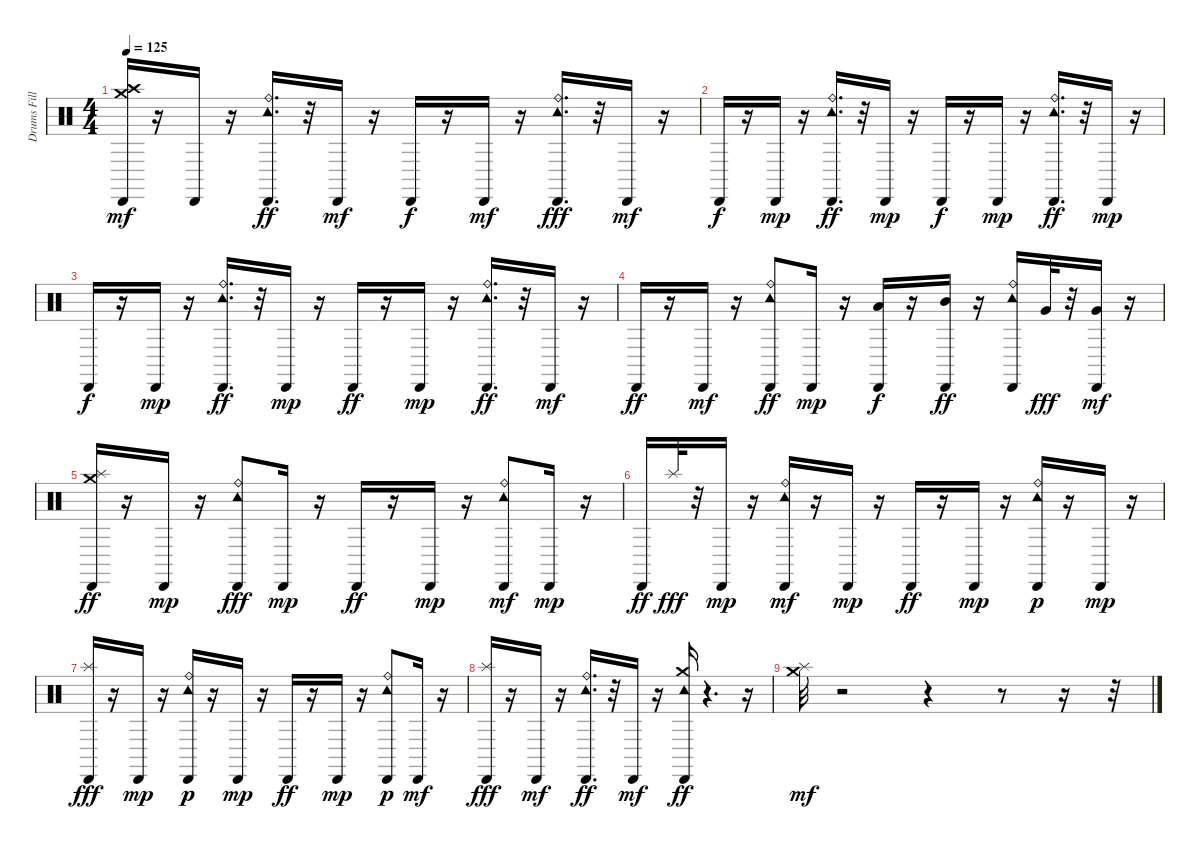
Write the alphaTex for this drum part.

\track ("Drums Fill" "Drums Fill") {instrument percussion}
\staff {score}
\articulation defaults
\ts (4 4)
\tempo 125
\clef neutral
\ks c
("Cabasa (hit)" "Crash high (hit)" "Crash medium (hit)").16{dy mf} r.16 "Cabasa (hit)".16 r.16 ("Tambourine (hit)" "Cabasa (hit)" "Ride (bell)").16{d dy ff} r.32 "Cabasa (hit)".16{dy mf} r.16 "Cabasa (hit)".16{dy f} r.16 "Cabasa (hit)".16{dy mf} r.16 ("Tambourine (hit)" "Cabasa (hit)" "Ride (bell)").16{d dy fff} r.32 "Cabasa (hit)".16{dy mf} r.16 |
"Cabasa (hit)".16{dy f} r.16 "Cabasa (hit)".16{dy mp} r.16 ("Cabasa (hit)" "Tambourine (hit)" "Ride (bell)").16{d dy ff} r.32 "Cabasa (hit)".16{dy mp} r.16 "Cabasa (hit)".16{dy f} r.16 "Cabasa (hit)".16{dy mp} r.16 ("Cabasa (hit)" "Tambourine (hit)" "Ride (bell)").16{d dy ff} r.32 "Cabasa (hit)".16{dy mp} r.16 |
"Cabasa (hit)".16{dy f} r.16 "Cabasa (hit)".16{dy mp volume 14} r.16 ("Cabasa (hit)" "Tambourine (hit)" "Ride (bell)").16{d dy ff volume 14} r.32 "Cabasa (hit)".16{dy mp volume 14} r.16 "Cabasa (hit)".16{dy ff volume 13} r.16 "Cabasa (hit)".16{dy mp volume 13} r.16 ("Cabasa (hit)" "Tambourine (hit)" "Ride (bell)").16{d dy ff volume 13} r.32 "Cabasa (hit)".16{dy mf volume 12} r.16 |
"Cabasa (hit)".16{dy ff volume 12} r.16 "Cabasa (hit)".16{dy mf volume 12} r.16 ("Cabasa (hit)" "Tambourine (hit)" "Ride (bell)").8{dy ff volume 12} "Cabasa (hit)".16{dy mp volume 11} r.16 ("Cabasa (hit)" "Low Tom (hit)").16{dy f volume 11} r.16 ("Cabasa (hit)" "Mid Tom (hit)").16{dy ff volume 11} r.16 ("Cabasa (hit)" "Tambourine (hit)" "Ride (bell)").16{volume 10} "Very Low Tom (hit)".32{dy fff volume 10} r.32 ("Cabasa (hit)" "Very Low Tom (hit)").16{dy mf volume 10} r.16 |
("Cabasa (hit)" "Splash (hit)" "Crash medium (hit)").16{dy ff volume 10} r.16 "Cabasa (hit)".16{dy mp volume 9} r.16 ("Ride (bell)" "Cabasa (hit)" "Tambourine (hit)").8{dy fff volume 9} "Cabasa (hit)".16{dy mp volume 9} r.16 "Cabasa (hit)".16{dy ff volume 8} r.16 "Cabasa (hit)".16{dy mp volume 8} r.16 ("Cabasa (hit)" "Tambourine (hit)" "Ride (bell)").8{dy mf volume 8} "Cabasa (hit)".16{dy mp volume 8} r.16 |
"Cabasa (hit)".16{dy ff volume 7} "Splash (hit)".32{dy fff volume 7} r.32 "Cabasa (hit)".16{dy mp volume 7} r.16 ("Cabasa (hit)" "Tambourine (hit)" "Ride (bell)").16{dy mf volume 7} r.16 "Cabasa (hit)".16{dy mp volume 6} r.16 "Cabasa (hit)".16{dy ff volume 6} r.16 "Cabasa (hit)".16{dy mp volume 6} r.16 ("Cabasa (hit)" "Tambourine (hit)" "Ride (bell)").16{dy p volume 6} r.16 "Cabasa (hit)".16{dy mp volume 5} r.16 |
("Cabasa (hit)" "Splash (hit)").16{dy fff volume 5} r.16 "Cabasa (hit)".16{dy mp volume 5} r.16 ("Tambourine (hit)" "Cabasa (hit)" "Ride (bell)").16{dy p volume 4} r.16 "Cabasa (hit)".16{dy mp volume 4} r.16 "Cabasa (hit)".16{dy ff volume 4} r.16 "Cabasa (hit)".16{dy mp volume 4} r.16 ("Tambourine (hit)" "Cabasa (hit)" "Ride (bell)").8{dy p volume 3} "Cabasa (hit)".16{dy mf volume 3} r.16 |
("Cabasa (hit)" "Splash (hit)").16{dy fff volume 3} r.16 "Cabasa (hit)".16{dy mf volume 2} r.16 ("Ride (bell)" "Tambourine (hit)" "Cabasa (hit)").16{d dy ff volume 2} r.32 "Cabasa (hit)".16{dy mf volume 2} r.16 ("Tambourine (hit)" "Crash medium (hit)" "Cabasa (hit)").16{dy ff volume 2} r.4{d} r.16 |
("Crash medium (hit)" "Splash (hit)").32{dy mf volume 0} r.2 r.4 r.8 r.16 r.32
